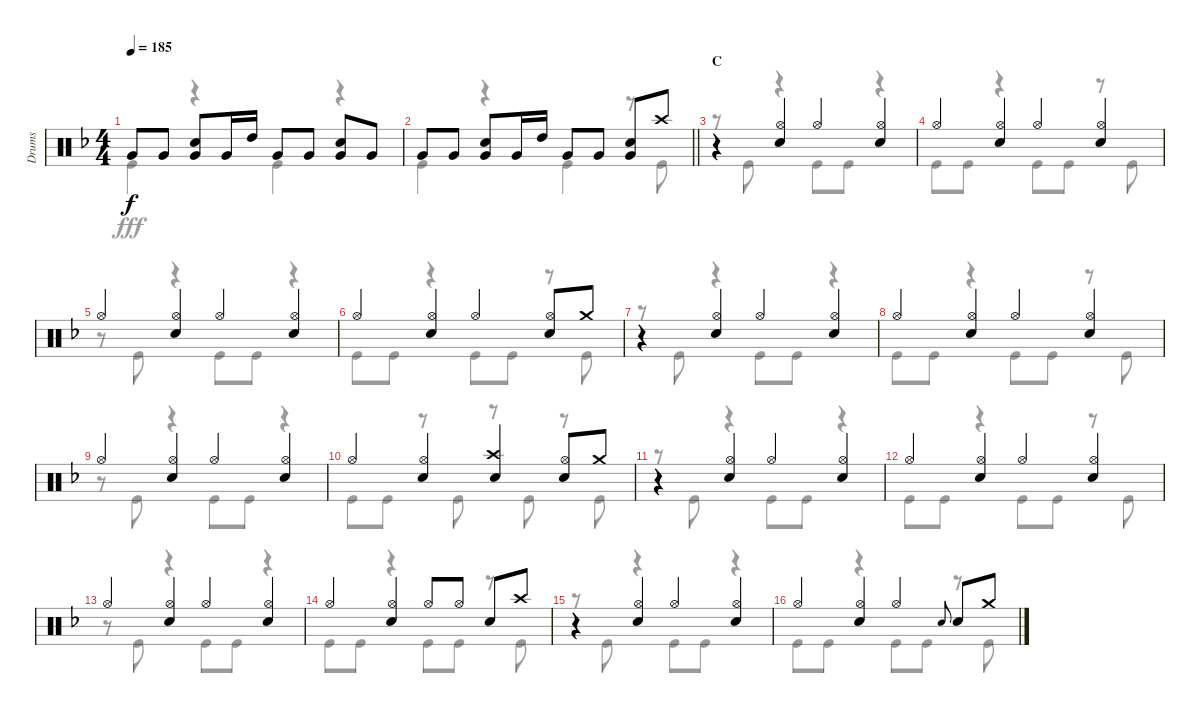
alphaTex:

\track ("Drums" "Drums") {instrument percussion}
\staff {score}
\articulation defaults
\voice
\ts (4 4)
\tempo 185
\clef neutral
\ks f "Very Low Tom (hit)".8{dy f} "Very Low Tom (hit)".8
("Snare (hit) 2" "Very Low Tom (hit)").8 "Very Low Tom (hit)".16 "High Tom (hit)".16 "Very Low Tom (hit)".8 "Very Low Tom (hit)".8 ("Snare (hit) 2" "Very Low Tom (hit)").8 "Very Low Tom (hit)".8 |
\barLineRight lightlight "Very Low Tom (hit)".8 "Very Low Tom (hit)".8
("Snare (hit) 2" "Very Low Tom (hit)").8 "Very Low Tom (hit)".16 "High Tom (hit)".16 "Very Low Tom (hit)".8 "Very Low Tom (hit)".8 ("Snare (hit) 2" "Very Low Tom (hit)").8 "Crash high (hit)".8 |
\section ("" "C")
r.4 ("Hi-Hat (open)" "Snare (hit) 2").4 "Hi-Hat (open)".4 ("Hi-Hat (open)" "Snare (hit) 2").4 |
"Hi-Hat (open)".4 ("Hi-Hat (open)" "Snare (hit) 2").4 "Hi-Hat (open)".4 ("Hi-Hat (open)" "Snare (hit) 2").4 |
"Hi-Hat (open)".4 ("Hi-Hat (open)" "Snare (hit) 2").4 "Hi-Hat (open)".4 ("Hi-Hat (open)" "Snare (hit) 2").4 |
"Hi-Hat (open)".4 ("Hi-Hat (open)" "Snare (hit) 2").4 "Hi-Hat (open)".4 ("Hi-Hat (open)" "Snare (hit) 2").8 "Crash medium (hit)".8 |
r.4 ("Hi-Hat (open)" "Snare (hit) 2").4 "Hi-Hat (open)".4 ("Hi-Hat (open)" "Snare (hit) 2").4 |
"Hi-Hat (open)".4 ("Hi-Hat (open)" "Snare (hit) 2").4 "Hi-Hat (open)".4 ("Hi-Hat (open)" "Snare (hit) 2").4 |
"Hi-Hat (open)".4 ("Hi-Hat (open)" "Snare (hit) 2").4 "Hi-Hat (open)".4 ("Hi-Hat (open)" "Snare (hit) 2").4 |
"Hi-Hat (open)".4 ("Hi-Hat (open)" "Snare (hit) 2").4 ("Crash high (hit)" "Snare (hit) 2").4 ("Hi-Hat (open)" "Snare (hit) 2").8 "Crash medium (hit)".8 |
r.4 ("Hi-Hat (open)" "Snare (hit) 2").4 "Hi-Hat (open)".4 ("Hi-Hat (open)" "Snare (hit) 2").4 |
"Hi-Hat (open)".4 ("Hi-Hat (open)" "Snare (hit) 2").4 "Hi-Hat (open)".4 ("Hi-Hat (open)" "Snare (hit) 2").4 |
"Hi-Hat (open)".4 ("Hi-Hat (open)" "Snare (hit) 2").4 "Hi-Hat (open)".4 ("Hi-Hat (open)" "Snare (hit) 2").4 |
"Hi-Hat (open)".4 ("Hi-Hat (open)" "Snare (hit) 2").4 "Hi-Hat (open)".8 "Hi-Hat (open)".8 "Snare (hit) 2".8 "Crash high (hit)".8 |
r.4 ("Hi-Hat (open)" "Snare (hit) 2").4 "Hi-Hat (open)".4 ("Hi-Hat (open)" "Snare (hit) 2").4 |
"Hi-Hat (open)".4 ("Hi-Hat (open)" "Snare (hit) 2").4 "Hi-Hat (open)".4 "Snare (hit) 2".8{gr onbeat} "Snare (hit) 2".8 "Crash medium (hit)".8
\voice
\clef neutral
\ottava regular
\simile none
\ks f "Kick (hit)".4{dy fff}
r.4 "Kick (hit)".4 r.4 |
\barLineRight lightlight "Kick (hit)".4
r.4 "Kick (hit)".4 r.8 "Kick (hit)".8 |
r.8 "Kick (hit)".8 r.4 "Kick (hit)".8 "Kick (hit)".8 r.4 |
"Kick (hit)".8 "Kick (hit)".8 r.4 "Kick (hit)".8 "Kick (hit)".8 r.8 "Kick (hit)".8 |
r.8 "Kick (hit)".8 r.4 "Kick (hit)".8 "Kick (hit)".8 r.4 |
"Kick (hit)".8 "Kick (hit)".8 r.4 "Kick (hit)".8 "Kick (hit)".8 r.8 "Kick (hit)".8 |
r.8 "Kick (hit)".8 r.4 "Kick (hit)".8 "Kick (hit)".8 r.4 |
"Kick (hit)".8 "Kick (hit)".8 r.4 "Kick (hit)".8 "Kick (hit)".8 r.8 "Kick (hit)".8 |
r.8 "Kick (hit)".8 r.4 "Kick (hit)".8 "Kick (hit)".8 r.4 |
"Kick (hit)".8 "Kick (hit)".8 r.8 "Kick (hit)".8 r.8 "Kick (hit)".8 r.8 "Kick (hit)".8 |
r.8 "Kick (hit)".8 r.4 "Kick (hit)".8 "Kick (hit)".8 r.4 |
"Kick (hit)".8 "Kick (hit)".8 r.4 "Kick (hit)".8 "Kick (hit)".8 r.8 "Kick (hit)".8 |
r.8 "Kick (hit)".8 r.4 "Kick (hit)".8 "Kick (hit)".8 r.4 |
"Kick (hit)".8 "Kick (hit)".8 r.4 "Kick (hit)".8 "Kick (hit)".8 r.8 "Kick (hit)".8 |
r.8 "Kick (hit)".8 r.4 "Kick (hit)".8 "Kick (hit)".8 r.4 |
"Kick (hit)".8 "Kick (hit)".8 r.4 "Kick (hit)".8 "Kick (hit)".8 r.8 "Kick (hit)".8
